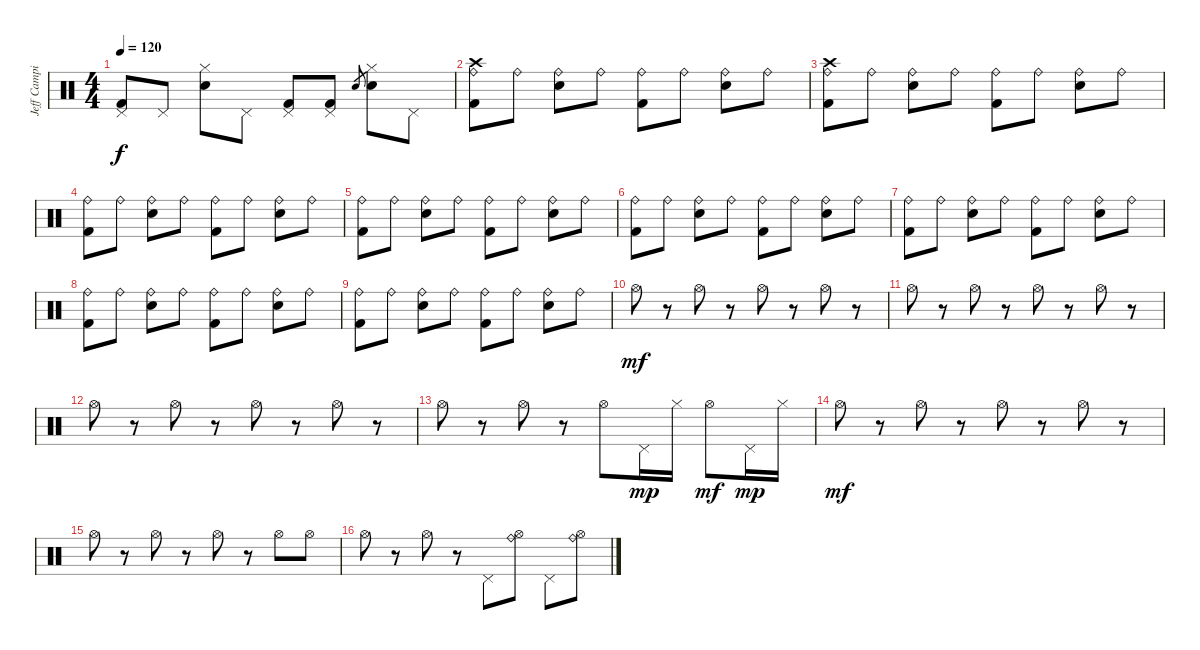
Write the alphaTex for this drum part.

\track ("Jeff Campitelli" "Jeff Campi") {instrument percussion}
\staff {score}
\articulation defaults
\ts (4 4)
\tempo 120
\clef neutral
\ks c
("Pedal Hi-Hat (hit)" "Kick (hit) 2").8{dy f} "Pedal Hi-Hat (hit)".8 ("Hi-Hat (closed)" "Snare (hit) 2").8 "Pedal Hi-Hat (hit)".8 ("Pedal Hi-Hat (hit)" "Kick (hit) 2").8 ("Pedal Hi-Hat (hit)" "Kick (hit) 2").8 "Snare (hit) 2".8{gr} ("Hi-Hat (closed)" "Snare (hit) 2").8 "Pedal Hi-Hat (hit)".8 |
("Crash high (hit)" "Ride (bell)" "Kick (hit) 2").8 "Ride (bell)".8 ("Ride (bell)" "Snare (hit) 2").8 "Ride (bell)".8 ("Ride (bell)" "Kick (hit) 2").8 "Ride (bell)".8 ("Ride (bell)" "Snare (hit) 2").8 "Ride (bell)".8 |
("Crash high (hit)" "Ride (bell)" "Kick (hit) 2").8 "Ride (bell)".8 ("Ride (bell)" "Snare (hit) 2").8 "Ride (bell)".8 ("Ride (bell)" "Kick (hit) 2").8 "Ride (bell)".8 ("Ride (bell)" "Snare (hit) 2").8 "Ride (bell)".8 |
("Ride (bell)" "Kick (hit) 2").8 "Ride (bell)".8 ("Ride (bell)" "Snare (hit) 2").8 "Ride (bell)".8 ("Ride (bell)" "Kick (hit) 2").8 "Ride (bell)".8 ("Ride (bell)" "Snare (hit) 2").8 "Ride (bell)".8 |
("Ride (bell)" "Kick (hit) 2").8 "Ride (bell)".8 ("Ride (bell)" "Snare (hit) 2").8 "Ride (bell)".8 ("Ride (bell)" "Kick (hit) 2").8 "Ride (bell)".8 ("Ride (bell)" "Snare (hit) 2").8 "Ride (bell)".8 |
("Ride (bell)" "Kick (hit) 2").8 "Ride (bell)".8 ("Ride (bell)" "Snare (hit) 2").8 "Ride (bell)".8 ("Ride (bell)" "Kick (hit) 2").8 "Ride (bell)".8 ("Ride (bell)" "Snare (hit) 2").8 "Ride (bell)".8 |
("Ride (bell)" "Kick (hit) 2").8 "Ride (bell)".8 ("Ride (bell)" "Snare (hit) 2").8 "Ride (bell)".8 ("Ride (bell)" "Kick (hit) 2").8 "Ride (bell)".8 ("Ride (bell)" "Snare (hit) 2").8 "Ride (bell)".8 |
("Ride (bell)" "Kick (hit) 2").8 "Ride (bell)".8 ("Ride (bell)" "Snare (hit) 2").8 "Ride (bell)".8 ("Ride (bell)" "Kick (hit) 2").8 "Ride (bell)".8 ("Ride (bell)" "Snare (hit) 2").8 "Ride (bell)".8 |
("Ride (bell)" "Kick (hit) 2").8 "Ride (bell)".8 ("Ride (bell)" "Snare (hit) 2").8 "Ride (bell)".8 ("Ride (bell)" "Kick (hit) 2").8 "Ride (bell)".8 ("Ride (bell)" "Snare (hit) 2").8 "Ride (bell)".8 |
"Hi-Hat (open)".8{dy mf} r.8 "Hi-Hat (open)".8 r.8 "Hi-Hat (open)".8 r.8 "Hi-Hat (open)".8 r.8 |
"Hi-Hat (open)".8 r.8 "Hi-Hat (open)".8 r.8 "Hi-Hat (open)".8 r.8 "Hi-Hat (open)".8 r.8 |
"Hi-Hat (open)".8 r.8 "Hi-Hat (open)".8 r.8 "Hi-Hat (open)".8 r.8 "Hi-Hat (open)".8 r.8 |
"Hi-Hat (open)".8 r.8 "Hi-Hat (open)".8 r.8 "Hi-Hat (open)".8 "Pedal Hi-Hat (hit)".16{dy mp} "Hi-Hat (closed)".16 "Hi-Hat (open)".8{dy mf} "Pedal Hi-Hat (hit)".16{dy mp} "Hi-Hat (closed)".16 |
"Hi-Hat (open)".8{dy mf} r.8 "Hi-Hat (open)".8 r.8 "Hi-Hat (open)".8 r.8 "Hi-Hat (open)".8 r.8 |
"Hi-Hat (open)".8 r.8 "Hi-Hat (open)".8 r.8 "Hi-Hat (open)".8 r.8 "Hi-Hat (open)".8 "Hi-Hat (open)".8 |
"Hi-Hat (open)".8 r.8 "Hi-Hat (open)".8 r.8 "Pedal Hi-Hat (hit)".8 ("Ride (bell)" "Hi-Hat (open)").8 "Pedal Hi-Hat (hit)".8 ("Ride (bell)" "Hi-Hat (open)").8
